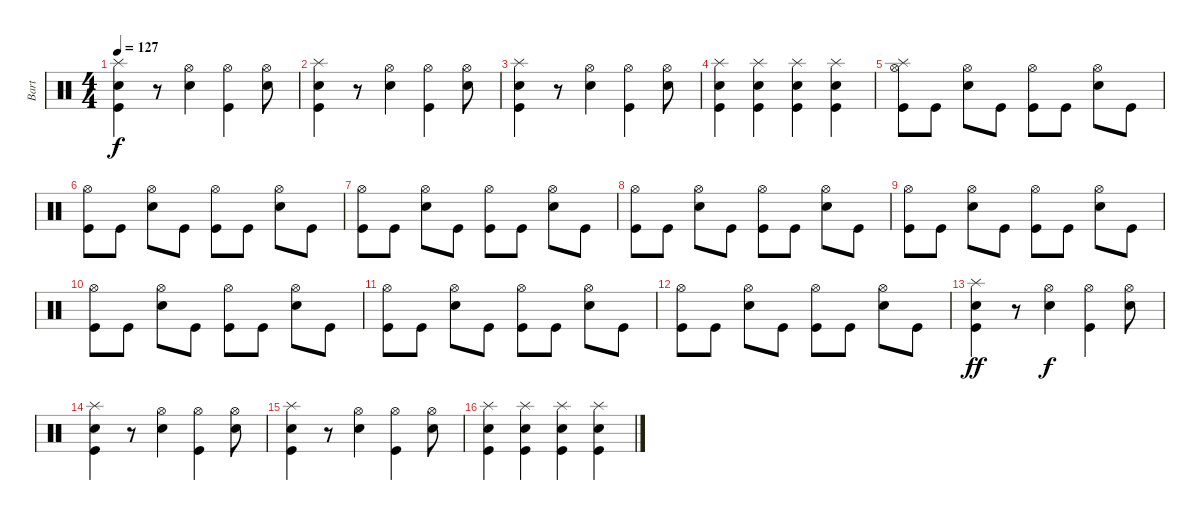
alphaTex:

\track ("Bart" "Bart") {instrument percussion}
\staff {score}
\articulation defaults
\ts (4 4)
\tempo 127
\clef neutral
\ks c
("Kick (hit)" "Electric Snare (hit)" "Splash (hit)").4{dy f} r.8 ("Electric Snare (hit)" "Hi-Hat (open)").4 ("Kick (hit)" "Hi-Hat (open)").4 ("Electric Snare (hit)" "Hi-Hat (open)").8 |
("Kick (hit)" "Electric Snare (hit)" "Splash (hit)").4 r.8 ("Electric Snare (hit)" "Hi-Hat (open)").4 ("Kick (hit)" "Hi-Hat (open)").4 ("Electric Snare (hit)" "Hi-Hat (open)").8 |
("Kick (hit)" "Electric Snare (hit)" "Splash (hit)").4 r.8 ("Electric Snare (hit)" "Hi-Hat (open)").4 ("Kick (hit)" "Hi-Hat (open)").4 ("Electric Snare (hit)" "Hi-Hat (open)").8 |
("Kick (hit)" "Electric Snare (hit)" "Splash (hit)").4 ("Kick (hit)" "Electric Snare (hit)" "Splash (hit)").4 ("Kick (hit)" "Electric Snare (hit)" "Splash (hit)").4 ("Kick (hit)" "Electric Snare (hit)" "Splash (hit)").4 |
("Kick (hit)" "Hi-Hat (open)" "Splash (hit)").8 "Kick (hit)".8 ("Electric Snare (hit)" "Hi-Hat (open)").8 "Kick (hit)".8 ("Kick (hit)" "Hi-Hat (open)").8 "Kick (hit)".8 ("Electric Snare (hit)" "Hi-Hat (open)").8 "Kick (hit)".8 |
("Kick (hit)" "Hi-Hat (open)").8 "Kick (hit)".8 ("Electric Snare (hit)" "Hi-Hat (open)").8 "Kick (hit)".8 ("Kick (hit)" "Hi-Hat (open)").8 "Kick (hit)".8 ("Electric Snare (hit)" "Hi-Hat (open)").8 "Kick (hit)".8 |
("Kick (hit)" "Hi-Hat (open)").8 "Kick (hit)".8 ("Electric Snare (hit)" "Hi-Hat (open)").8 "Kick (hit)".8 ("Kick (hit)" "Hi-Hat (open)").8 "Kick (hit)".8 ("Electric Snare (hit)" "Hi-Hat (open)").8 "Kick (hit)".8 |
("Kick (hit)" "Hi-Hat (open)").8 "Kick (hit)".8 ("Electric Snare (hit)" "Hi-Hat (open)").8 "Kick (hit)".8 ("Kick (hit)" "Hi-Hat (open)").8 "Kick (hit)".8 ("Electric Snare (hit)" "Hi-Hat (open)").8 "Kick (hit)".8 |
("Kick (hit)" "Hi-Hat (open)").8 "Kick (hit)".8 ("Electric Snare (hit)" "Hi-Hat (open)").8 "Kick (hit)".8 ("Kick (hit)" "Hi-Hat (open)").8 "Kick (hit)".8 ("Electric Snare (hit)" "Hi-Hat (open)").8 "Kick (hit)".8 |
("Kick (hit)" "Hi-Hat (open)").8 "Kick (hit)".8 ("Electric Snare (hit)" "Hi-Hat (open)").8 "Kick (hit)".8 ("Kick (hit)" "Hi-Hat (open)").8 "Kick (hit)".8 ("Electric Snare (hit)" "Hi-Hat (open)").8 "Kick (hit)".8 |
("Kick (hit)" "Hi-Hat (open)").8 "Kick (hit)".8 ("Electric Snare (hit)" "Hi-Hat (open)").8 "Kick (hit)".8 ("Kick (hit)" "Hi-Hat (open)").8 "Kick (hit)".8 ("Electric Snare (hit)" "Hi-Hat (open)").8 "Kick (hit)".8 |
("Kick (hit)" "Hi-Hat (open)").8 "Kick (hit)".8 ("Electric Snare (hit)" "Hi-Hat (open)").8 "Kick (hit)".8 ("Kick (hit)" "Hi-Hat (open)").8 "Kick (hit)".8 ("Electric Snare (hit)" "Hi-Hat (open)").8 "Kick (hit)".8 |
("Kick (hit)" "Electric Snare (hit)" "Splash (hit)").4{dy ff} r.8 ("Electric Snare (hit)" "Hi-Hat (open)").4{dy f} ("Kick (hit)" "Hi-Hat (open)").4 ("Electric Snare (hit)" "Hi-Hat (open)").8 |
("Kick (hit)" "Electric Snare (hit)" "Splash (hit)").4 r.8 ("Electric Snare (hit)" "Hi-Hat (open)").4 ("Kick (hit)" "Hi-Hat (open)").4 ("Electric Snare (hit)" "Hi-Hat (open)").8 |
("Kick (hit)" "Electric Snare (hit)" "Splash (hit)").4 r.8 ("Electric Snare (hit)" "Hi-Hat (open)").4 ("Kick (hit)" "Hi-Hat (open)").4 ("Electric Snare (hit)" "Hi-Hat (open)").8 |
("Kick (hit)" "Electric Snare (hit)" "Splash (hit)").4 ("Kick (hit)" "Electric Snare (hit)" "Splash (hit)").4 ("Kick (hit)" "Electric Snare (hit)" "Splash (hit)").4 ("Kick (hit)" "Electric Snare (hit)" "Splash (hit)").4
